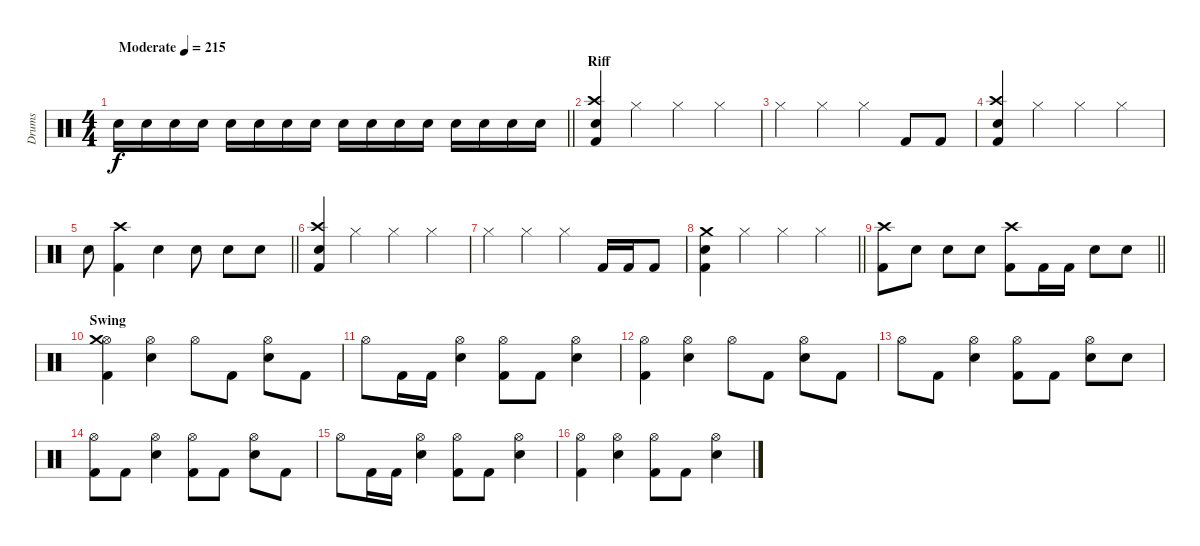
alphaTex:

\track ("Drums" "Drums") {instrument percussion}
\staff {score}
\articulation defaults
\ts (4 4)
\tempo (215 "Moderate")
\clef neutral
\barLineRight lightlight
\ks c "Snare (hit) 2".16{dy f} "Snare (hit) 2".16 "Snare (hit) 2".16 "Snare (hit) 2".16 "Snare (hit) 2".16 "Snare (hit) 2".16 "Snare (hit) 2".16 "Snare (hit) 2".16 "Snare (hit) 2".16 "Snare (hit) 2".16 "Snare (hit) 2".16 "Snare (hit) 2".16 "Snare (hit) 2".16 "Snare (hit) 2".16 "Snare (hit) 2".16 "Snare (hit) 2".16
|
\section ("" "Riff")
("Crash high (hit)" "Snare (hit) 2" "Kick (hit) 2").4 "Hi-Hat (closed)".4 "Hi-Hat (closed)".4 "Hi-Hat (closed)".4 |
"Hi-Hat (closed)".4 "Hi-Hat (closed)".4 "Hi-Hat (closed)".4 "Kick (hit) 2".8 "Kick (hit) 2".8 |
("Crash high (hit)" "Snare (hit) 2" "Kick (hit) 2").4 "Hi-Hat (closed)".4 "Hi-Hat (closed)".4 "Hi-Hat (closed)".4 |
\barLineRight lightlight "Snare (hit) 2".8
("Crash high (hit)" "Kick (hit) 2").4 "Snare (hit) 2".4 "Snare (hit) 2".8 "Snare (hit) 2".8 "Snare (hit) 2".8 |
("Crash high (hit)" "Snare (hit) 2" "Kick (hit) 2").4 "Hi-Hat (closed)".4 "Hi-Hat (closed)".4 "Hi-Hat (closed)".4 |
"Hi-Hat (closed)".4 "Hi-Hat (closed)".4 "Hi-Hat (closed)".4 "Kick (hit) 2".16 "Kick (hit) 2".16 "Kick (hit) 2".8 |
\barLineRight lightlight
("Crash medium (hit)" "Snare (hit) 2" "Kick (hit) 2").4 "Hi-Hat (closed)".4 "Hi-Hat (closed)".4 "Hi-Hat (closed)".4 |
\barLineRight lightlight
("Crash high (hit)" "Kick (hit) 2").8 "Snare (hit) 2".8 "Snare (hit) 2".8 "Snare (hit) 2".8 ("Crash high (hit)" "Kick (hit) 2").8 "Kick (hit) 2".16 "Kick (hit) 2".16 "Snare (hit) 2".8 "Snare (hit) 2".8 |
\section ("" "Swing")
("Hi-Hat (open)" "Crash medium (hit)" "Kick (hit) 2").4 ("Hi-Hat (open)" "Snare (hit) 2").4 "Hi-Hat (open)".8 "Kick (hit) 2".8 ("Hi-Hat (open)" "Snare (hit) 2").8 "Kick (hit) 2".8 |
"Hi-Hat (open)".8 "Kick (hit) 2".16 "Kick (hit) 2".16 ("Hi-Hat (open)" "Snare (hit) 2").4 ("Hi-Hat (open)" "Kick (hit) 2").8 "Kick (hit) 2".8 ("Hi-Hat (open)" "Snare (hit) 2").4 |
("Hi-Hat (open)" "Kick (hit) 2").4 ("Hi-Hat (open)" "Snare (hit) 2").4 "Hi-Hat (open)".8 "Kick (hit) 2".8 ("Hi-Hat (open)" "Snare (hit) 2").8 "Kick (hit) 2".8 |
"Hi-Hat (open)".8 "Kick (hit) 2".8 ("Hi-Hat (open)" "Snare (hit) 2").4 ("Hi-Hat (open)" "Kick (hit) 2").8 "Kick (hit) 2".8 ("Hi-Hat (open)" "Snare (hit) 2").8 "Snare (hit) 2".8 |
("Hi-Hat (open)" "Kick (hit) 2").8 "Kick (hit) 2".8 ("Hi-Hat (open)" "Snare (hit) 2").4 ("Hi-Hat (open)" "Kick (hit) 2").8 "Kick (hit) 2".8 ("Hi-Hat (open)" "Snare (hit) 2").8 "Kick (hit) 2".8 |
"Hi-Hat (open)".8 "Kick (hit) 2".16 "Kick (hit) 2".16 ("Hi-Hat (open)" "Snare (hit) 2").4 ("Hi-Hat (open)" "Kick (hit) 2").8 "Kick (hit) 2".8 ("Hi-Hat (open)" "Snare (hit) 2").4 |
("Hi-Hat (open)" "Kick (hit) 2").4 ("Hi-Hat (open)" "Snare (hit) 2").4 ("Hi-Hat (open)" "Kick (hit) 2").8 "Kick (hit) 2".8 ("Hi-Hat (open)" "Snare (hit) 2").4
